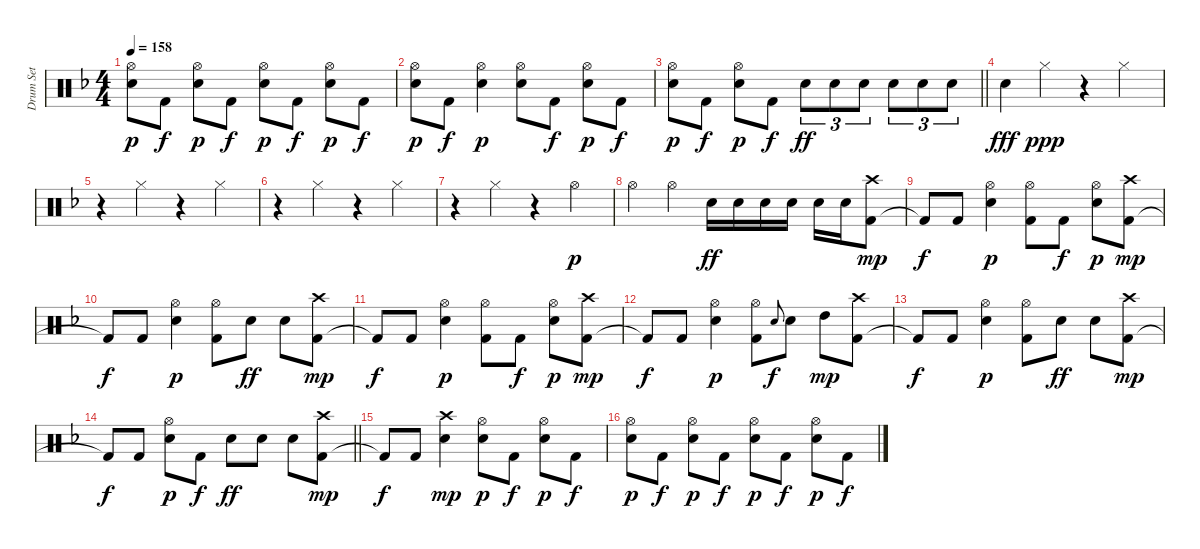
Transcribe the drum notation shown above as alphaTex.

\track ("Drum Set" "Drum Set") {instrument percussion}
\staff {score}
\articulation defaults
\ts (4 4)
\tempo 158
\clef neutral
\ks f
("Electric Snare (hit)" "Hi-Hat (open)").8{dy p} "Kick (hit) 2".8{dy f} ("Electric Snare (hit)" "Hi-Hat (open)").8{dy p} "Kick (hit) 2".8{dy f} ("Electric Snare (hit)" "Hi-Hat (open)").8{dy p} "Kick (hit) 2".8{dy f} ("Electric Snare (hit)" "Hi-Hat (open)").8{dy p} "Kick (hit) 2".8{dy f} |
("Electric Snare (hit)" "Hi-Hat (open)").8{dy p} "Kick (hit) 2".8{dy f} ("Electric Snare (hit)" "Hi-Hat (open)").4{dy p} ("Electric Snare (hit)" "Hi-Hat (open)").8 "Kick (hit) 2".8{dy f} ("Electric Snare (hit)" "Hi-Hat (open)").8{dy p} "Kick (hit) 2".8{dy f} |
\barLineRight lightlight
("Electric Snare (hit)" "Hi-Hat (open)").8{dy p} "Kick (hit) 2".8{dy f} ("Electric Snare (hit)" "Hi-Hat (open)").8{dy p} "Kick (hit) 2".8{dy f} "Electric Snare (hit)".8{tu (3 2) dy ff} "Electric Snare (hit)".8{tu (3 2)} "Electric Snare (hit)".8{tu (3 2)} "Electric Snare (hit)".8{tu (3 2)} "Electric Snare (hit)".8{tu (3 2)} "Electric Snare (hit)".8{tu (3 2)} |
"Electric Snare (hit)".4{dy fff} "Hi-Hat (closed)".4{dy ppp} r.4 "Hi-Hat (closed)".4 |
r.4 "Hi-Hat (closed)".4 r.4 "Hi-Hat (closed)".4 |
r.4 "Hi-Hat (closed)".4 r.4 "Hi-Hat (closed)".4 |
r.4 "Hi-Hat (closed)".4 r.4 "Hi-Hat (open)".4{dy p} |
"Hi-Hat (open)".4 "Hi-Hat (open)".4 "Electric Snare (hit)".16{dy ff} "Electric Snare (hit)".16 "Electric Snare (hit)".16 "Electric Snare (hit)".16 "Electric Snare (hit)".16 "Electric Snare (hit)".16 ("Kick (hit) 2" "Crash high (hit)").8{dy mp} |
"Kick (hit) 2"{t}.8{dy f} "Kick (hit) 2".8 ("Electric Snare (hit)" "Hi-Hat (open)").4{dy p} ("Kick (hit) 2" "Hi-Hat (open)").8 "Kick (hit) 2".8{dy f} ("Electric Snare (hit)" "Hi-Hat (open)").8{dy p} ("Kick (hit) 2" "Crash high (hit)").8{dy mp} |
"Kick (hit) 2"{t}.8{dy f} "Kick (hit) 2".8 ("Electric Snare (hit)" "Hi-Hat (open)").4{dy p} ("Kick (hit) 2" "Hi-Hat (open)").8 "Electric Snare (hit)".8{dy ff} "Electric Snare (hit)".8 ("Kick (hit) 2" "Crash high (hit)").8{dy mp} |
"Kick (hit) 2"{t}.8{dy f} "Kick (hit) 2".8 ("Electric Snare (hit)" "Hi-Hat (open)").4{dy p} ("Kick (hit) 2" "Hi-Hat (open)").8 "Kick (hit) 2".8{dy f} ("Electric Snare (hit)" "Hi-Hat (open)").8{dy p} ("Kick (hit) 2" "Crash high (hit)").8{dy mp} |
"Kick (hit) 2"{t}.8{dy f} "Kick (hit) 2".8 ("Electric Snare (hit)" "Hi-Hat (open)").4{dy p} ("Kick (hit) 2" "Hi-Hat (open)").8 "Electric Snare (hit)".8{gr onbeat dy f} "Electric Snare (hit)".8 "High Tom (hit)".8{dy mp} ("Kick (hit) 2" "Crash high (hit)").8 |
"Kick (hit) 2"{t}.8{dy f} "Kick (hit) 2".8 ("Electric Snare (hit)" "Hi-Hat (open)").4{dy p} ("Kick (hit) 2" "Hi-Hat (open)").8 "Electric Snare (hit)".8{dy ff} "Electric Snare (hit)".8 ("Kick (hit) 2" "Crash high (hit)").8{dy mp} |
\barLineRight lightlight "Kick (hit) 2"{t}.8{dy f} "Kick (hit) 2".8
("Electric Snare (hit)" "Hi-Hat (open)").8{dy p} "Kick (hit) 2".8{dy f} "Electric Snare (hit)".8{dy ff} "Electric Snare (hit)".8 "Electric Snare (hit)".8 ("Kick (hit) 2" "Crash high (hit)").8{dy mp} |
"Kick (hit) 2"{t}.8{dy f} "Kick (hit) 2".8 ("Electric Snare (hit)" "Crash high (hit)").4{dy mp} ("Electric Snare (hit)" "Hi-Hat (open)").8{dy p} "Kick (hit) 2".8{dy f} ("Electric Snare (hit)" "Hi-Hat (open)").8{dy p} "Kick (hit) 2".8{dy f} |
("Electric Snare (hit)" "Hi-Hat (open)").8{dy p} "Kick (hit) 2".8{dy f} ("Electric Snare (hit)" "Hi-Hat (open)").8{dy p} "Kick (hit) 2".8{dy f} ("Electric Snare (hit)" "Hi-Hat (open)").8{dy p} "Kick (hit) 2".8{dy f} ("Electric Snare (hit)" "Hi-Hat (open)").8{dy p} "Kick (hit) 2".8{dy f}
